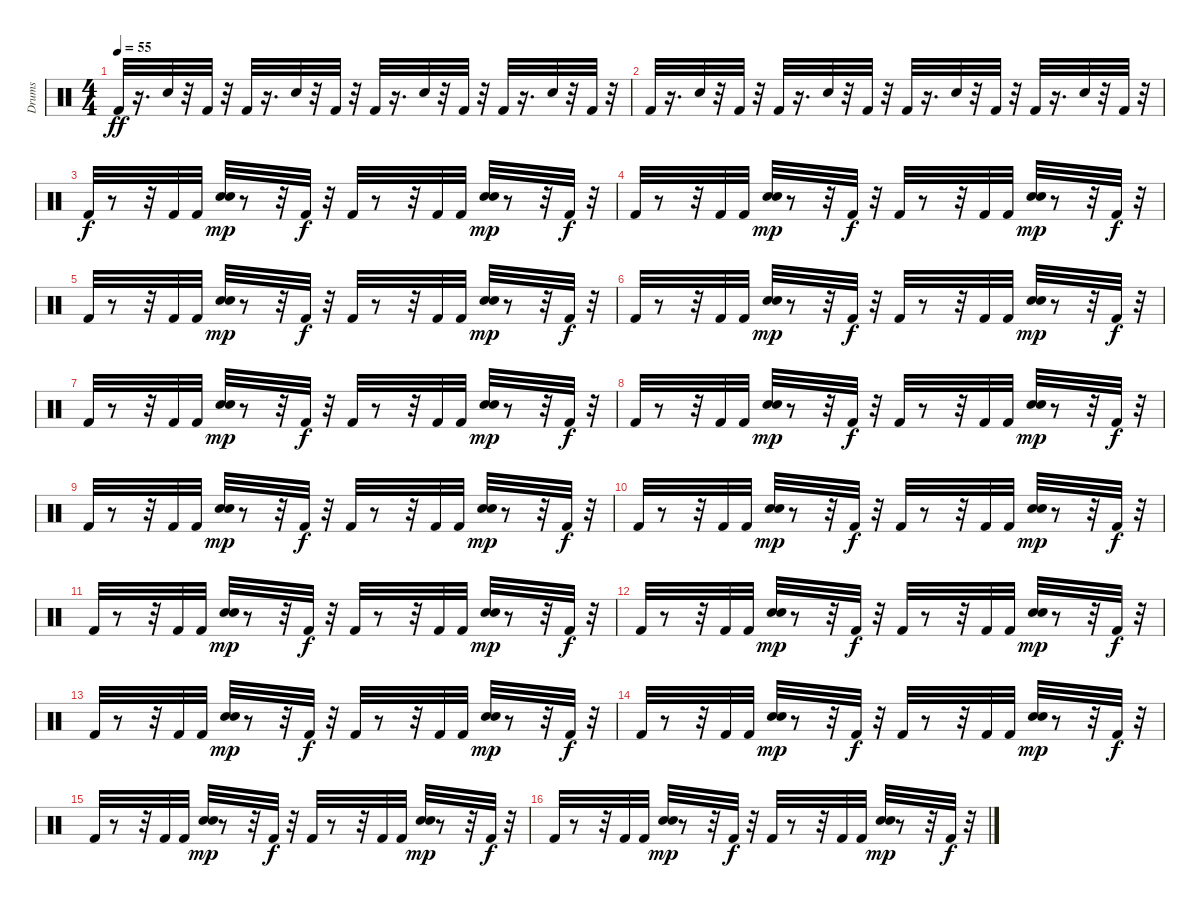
\track ("Drums               " "Drums     ") {instrument percussion}
\staff {score}
\articulation defaults
\ts (4 4)
\tempo 55
\clef neutral
\ks c "Kick (hit) 2".32{dy ff}
r.16{d} "Snare (hit) 2".32 r.32 "Kick (hit) 2".32 r.32 "Kick (hit) 2".32 r.16{d} "Snare (hit) 2".32 r.32 "Kick (hit) 2".32 r.32 "Kick (hit) 2".32 r.16{d} "Snare (hit) 2".32 r.32 "Kick (hit) 2".32 r.32 "Kick (hit) 2".32 r.16{d} "Snare (hit) 2".32 r.32 "Kick (hit) 2".32 r.32 |
"Kick (hit) 2".32 r.16{d} "Snare (hit) 2".32 r.32 "Kick (hit) 2".32 r.32 "Kick (hit) 2".32 r.16{d} "Snare (hit) 2".32 r.32 "Kick (hit) 2".32 r.32 "Kick (hit) 2".32 r.16{d} "Snare (hit) 2".32 r.32 "Kick (hit) 2".32 r.32 "Kick (hit) 2".32 r.16{d} "Snare (hit) 2".32 r.32 "Kick (hit) 2".32 r.32 |
"Kick (hit) 2".32{dy f} r.8 r.32 "Kick (hit) 2".32 "Kick (hit) 2".32 ("Snare (hit) 2" "Snare (hit) 2").32{dy mp} r.8 r.32 "Kick (hit) 2".32{dy f} r.32 "Kick (hit) 2".32 r.8 r.32 "Kick (hit) 2".32 "Kick (hit) 2".32 ("Snare (hit) 2" "Snare (hit) 2").32{dy mp} r.8 r.32 "Kick (hit) 2".32{dy f} r.32 |
"Kick (hit) 2".32 r.8 r.32 "Kick (hit) 2".32 "Kick (hit) 2".32 ("Snare (hit) 2" "Snare (hit) 2").32{dy mp} r.8 r.32 "Kick (hit) 2".32{dy f} r.32 "Kick (hit) 2".32 r.8 r.32 "Kick (hit) 2".32 "Kick (hit) 2".32 ("Snare (hit) 2" "Snare (hit) 2").32{dy mp} r.8 r.32 "Kick (hit) 2".32{dy f} r.32 |
"Kick (hit) 2".32 r.8 r.32 "Kick (hit) 2".32 "Kick (hit) 2".32 ("Snare (hit) 2" "Snare (hit) 2").32{dy mp} r.8 r.32 "Kick (hit) 2".32{dy f} r.32 "Kick (hit) 2".32 r.8 r.32 "Kick (hit) 2".32 "Kick (hit) 2".32 ("Snare (hit) 2" "Snare (hit) 2").32{dy mp} r.8 r.32 "Kick (hit) 2".32{dy f} r.32 |
"Kick (hit) 2".32 r.8 r.32 "Kick (hit) 2".32 "Kick (hit) 2".32 ("Snare (hit) 2" "Snare (hit) 2").32{dy mp} r.8 r.32 "Kick (hit) 2".32{dy f} r.32 "Kick (hit) 2".32 r.8 r.32 "Kick (hit) 2".32 "Kick (hit) 2".32 ("Snare (hit) 2" "Snare (hit) 2").32{dy mp} r.8 r.32 "Kick (hit) 2".32{dy f} r.32 |
"Kick (hit) 2".32 r.8 r.32 "Kick (hit) 2".32 "Kick (hit) 2".32 ("Snare (hit) 2" "Snare (hit) 2").32{dy mp} r.8 r.32 "Kick (hit) 2".32{dy f} r.32 "Kick (hit) 2".32 r.8 r.32 "Kick (hit) 2".32 "Kick (hit) 2".32 ("Snare (hit) 2" "Snare (hit) 2").32{dy mp} r.8 r.32 "Kick (hit) 2".32{dy f} r.32 |
"Kick (hit) 2".32 r.8 r.32 "Kick (hit) 2".32 "Kick (hit) 2".32 ("Snare (hit) 2" "Snare (hit) 2").32{dy mp} r.8 r.32 "Kick (hit) 2".32{dy f} r.32 "Kick (hit) 2".32 r.8 r.32 "Kick (hit) 2".32 "Kick (hit) 2".32 ("Snare (hit) 2" "Snare (hit) 2").32{dy mp} r.8 r.32 "Kick (hit) 2".32{dy f} r.32 |
"Kick (hit) 2".32 r.8 r.32 "Kick (hit) 2".32 "Kick (hit) 2".32 ("Snare (hit) 2" "Snare (hit) 2").32{dy mp} r.8 r.32 "Kick (hit) 2".32{dy f} r.32 "Kick (hit) 2".32 r.8 r.32 "Kick (hit) 2".32 "Kick (hit) 2".32 ("Snare (hit) 2" "Snare (hit) 2").32{dy mp} r.8 r.32 "Kick (hit) 2".32{dy f} r.32 |
"Kick (hit) 2".32 r.8 r.32 "Kick (hit) 2".32 "Kick (hit) 2".32 ("Snare (hit) 2" "Snare (hit) 2").32{dy mp} r.8 r.32 "Kick (hit) 2".32{dy f} r.32 "Kick (hit) 2".32 r.8 r.32 "Kick (hit) 2".32 "Kick (hit) 2".32 ("Snare (hit) 2" "Snare (hit) 2").32{dy mp} r.8 r.32 "Kick (hit) 2".32{dy f} r.32 |
"Kick (hit) 2".32 r.8 r.32 "Kick (hit) 2".32 "Kick (hit) 2".32 ("Snare (hit) 2" "Snare (hit) 2").32{dy mp} r.8 r.32 "Kick (hit) 2".32{dy f} r.32 "Kick (hit) 2".32 r.8 r.32 "Kick (hit) 2".32 "Kick (hit) 2".32 ("Snare (hit) 2" "Snare (hit) 2").32{dy mp} r.8 r.32 "Kick (hit) 2".32{dy f} r.32 |
"Kick (hit) 2".32 r.8 r.32 "Kick (hit) 2".32 "Kick (hit) 2".32 ("Snare (hit) 2" "Snare (hit) 2").32{dy mp} r.8 r.32 "Kick (hit) 2".32{dy f} r.32 "Kick (hit) 2".32 r.8 r.32 "Kick (hit) 2".32 "Kick (hit) 2".32 ("Snare (hit) 2" "Snare (hit) 2").32{dy mp} r.8 r.32 "Kick (hit) 2".32{dy f} r.32 |
"Kick (hit) 2".32 r.8 r.32 "Kick (hit) 2".32 "Kick (hit) 2".32 ("Snare (hit) 2" "Snare (hit) 2").32{dy mp} r.8 r.32 "Kick (hit) 2".32{dy f} r.32 "Kick (hit) 2".32 r.8 r.32 "Kick (hit) 2".32 "Kick (hit) 2".32 ("Snare (hit) 2" "Snare (hit) 2").32{dy mp} r.8 r.32 "Kick (hit) 2".32{dy f} r.32 |
"Kick (hit) 2".32 r.8 r.32 "Kick (hit) 2".32 "Kick (hit) 2".32 ("Snare (hit) 2" "Snare (hit) 2").32{dy mp} r.8 r.32 "Kick (hit) 2".32{dy f} r.32 "Kick (hit) 2".32 r.8 r.32 "Kick (hit) 2".32 "Kick (hit) 2".32 ("Snare (hit) 2" "Snare (hit) 2").32{dy mp} r.8 r.32 "Kick (hit) 2".32{dy f} r.32 |
"Kick (hit) 2".32 r.8 r.32 "Kick (hit) 2".32 "Kick (hit) 2".32 ("Snare (hit) 2" "Snare (hit) 2").32{dy mp} r.8 r.32 "Kick (hit) 2".32{dy f} r.32 "Kick (hit) 2".32 r.8 r.32 "Kick (hit) 2".32 "Kick (hit) 2".32 ("Snare (hit) 2" "Snare (hit) 2").32{dy mp} r.8 r.32 "Kick (hit) 2".32{dy f} r.32 |
"Kick (hit) 2".32 r.8 r.32 "Kick (hit) 2".32 "Kick (hit) 2".32 ("Snare (hit) 2" "Snare (hit) 2").32{dy mp} r.8 r.32 "Kick (hit) 2".32{dy f} r.32 "Kick (hit) 2".32 r.8 r.32 "Kick (hit) 2".32 "Kick (hit) 2".32 ("Snare (hit) 2" "Snare (hit) 2").32{dy mp} r.8 r.32 "Kick (hit) 2".32{dy f} r.32
